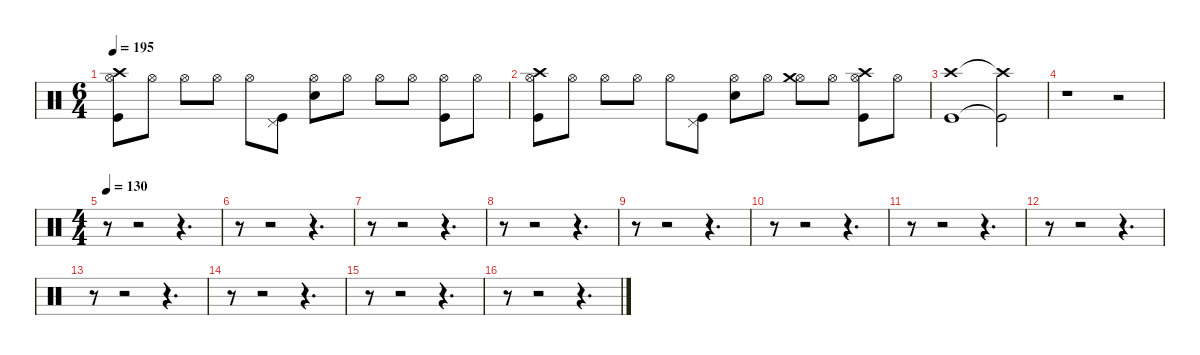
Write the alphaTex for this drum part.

\defaultSystemsLayout 4
\hideDynamics
\bracketExtendMode nobrackets
\singleTrackTrackNamePolicy hidden
\multiTrackTrackNamePolicy hidden
\firstSystemTrackNameMode fullname
\firstSystemTrackNameOrientation horizontal
\otherSystemsTrackNameOrientation horizontal
\track ("Percussion" "drm.") {instrument percussion}
\staff {score}
\articulation defaults
\ts (6 4)
\tempo 195
\clef neutral
\ks c
("Crash high (hit)" "Hi-Hat (open)" "Kick (hit)").8{dy f beam Down} "Hi-Hat (open)".8{beam Down} "Hi-Hat (open)".8{beam Down} "Hi-Hat (open)".8{beam Down} "Hi-Hat (open)".8{beam Down} ("Pedal Hi-Hat (hit)" "Kick (hit)").8{beam Down} ("Hi-Hat (open)" "Snare (hit) 2").8{beam Down} "Hi-Hat (open)".8{beam Down} "Hi-Hat (open)".8{beam Down} "Hi-Hat (open)".8{beam Down} ("Hi-Hat (open)" "Kick (hit)").8{beam Down} "Hi-Hat (open)".8{beam Down} |
("Crash high (hit)" "Hi-Hat (open)" "Kick (hit)").8{beam Down} "Hi-Hat (open)".8{beam Down} "Hi-Hat (open)".8{beam Down} "Hi-Hat (open)".8{beam Down} "Hi-Hat (open)".8{beam Down} ("Pedal Hi-Hat (hit)" "Kick (hit)").8{beam Down} ("Hi-Hat (open)" "Snare (hit) 2").8{beam Down} "Hi-Hat (open)".8{beam Down} ("Hi-Hat (open)" "Crash medium (hit)").8{beam Down} "Hi-Hat (open)".8{beam Down} ("Hi-Hat (open)" "Crash high (hit)" "Kick (hit)").8{beam Down} "Hi-Hat (open)".8{beam Down} |
("Crash high (hit)" "Kick (hit)").1{beam Down} ("Crash high (hit)"{t} "Kick (hit)"{t}).2{beam Down} |
r.1{beam Down} r.2{beam Down} |
\ts (4 4)
\beaming (8 2 2 2 2)
\tempo 130
r.8{beam Down} r.2{beam Down} r.4{d beam Down} |
r.8{beam Down} r.2{beam Down} r.4{d beam Down} |
r.8{beam Down} r.2{beam Down} r.4{d beam Down} |
r.8{beam Down} r.2{beam Down} r.4{d beam Down} |
r.8{beam Down} r.2{beam Down} r.4{d beam Down} |
r.8{beam Down} r.2{beam Down} r.4{d beam Down} |
r.8{beam Down} r.2{beam Down} r.4{d beam Down} |
r.8{beam Down} r.2{beam Down} r.4{d beam Down} |
r.8{beam Down} r.2{beam Down} r.4{d beam Down} |
r.8{beam Down} r.2{beam Down} r.4{d beam Down} |
r.8{beam Down} r.2{beam Down} r.4{d beam Down} |
r.8{beam Down} r.2{beam Down} r.4{d beam Down}
